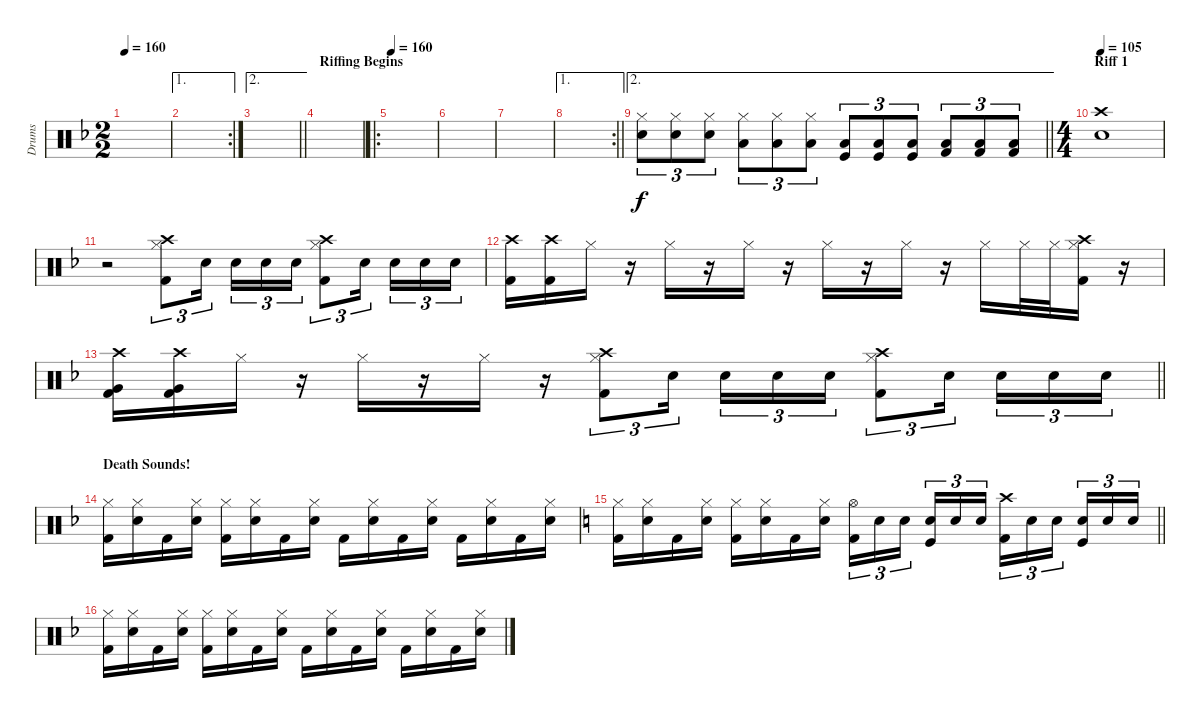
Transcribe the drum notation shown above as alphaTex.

\track ("Drums" "Drums") {instrument percussion}
\staff {score}
\articulation defaults
\ts (2 2)
\tempo 160
\clef neutral
\ks f
|
\ae 1
\rc 2
|
\ae 2
\barLineRight lightlight
|
\section ("" "Riffing Begins")
|
\ro
\tempo 160
|
|
|
\ae 1
\rc 2
\barLineRight lightlight
|
\ae 2
\barLineRight lightlight
("Snare (hit) 2" "Hi-Hat (closed)").8{tu (3 2)} ("Snare (hit) 2" "Hi-Hat (closed)").8{tu (3 2)} ("Snare (hit) 2" "Hi-Hat (closed)").8{tu (3 2)} ("Hi-Hat (closed)" "Low Floor Tom (hit)").8{tu (3 2)} ("Hi-Hat (closed)" "Low Floor Tom (hit)").8{tu (3 2)} ("Hi-Hat (closed)" "Low Floor Tom (hit)").8{tu (3 2)} ("Kick (hit)" "Low Floor Tom (hit)").8{tu (3 2)} ("Kick (hit)" "Low Floor Tom (hit)").8{tu (3 2)} ("Kick (hit)" "Low Floor Tom (hit)").8{tu (3 2)} ("Kick (hit) 2" "Low Floor Tom (hit)").8{tu (3 2)} ("Kick (hit) 2" "Low Floor Tom (hit)").8{tu (3 2)} ("Kick (hit) 2" "Low Floor Tom (hit)").8{tu (3 2)} |
\ts (4 4)
\section ("" "Riff 1")
\tempo 105
("Snare (hit) 2" "Crash high (hit)").1 |
r.2 ("Crash high (hit)" "Hi-Hat (closed)" "Kick (hit) 2").8{tu (3 2)} "Snare (hit) 2".16{tu (3 2) beam splitsecondary} "Snare (hit) 2".16{tu (3 2)} "Snare (hit) 2".16{tu (3 2)} "Snare (hit) 2".16{tu (3 2)} ("Crash high (hit)" "Hi-Hat (closed)" "Kick (hit) 2").8{tu (3 2)} "Snare (hit) 2".16{tu (3 2) beam splitsecondary} "Snare (hit) 2".16{tu (3 2)} "Snare (hit) 2".16{tu (3 2)} "Snare (hit) 2".16{tu (3 2)} |
("Crash high (hit)" "Kick (hit) 2").16 ("Crash high (hit)" "Kick (hit) 2").16 "Hi-Hat (closed)".16 r.16 "Hi-Hat (closed)".16 r.16 "Hi-Hat (closed)".16 r.16 "Hi-Hat (closed)".16 r.16 "Hi-Hat (closed)".16 r.16 "Hi-Hat (closed)".16 "Hi-Hat (closed)".32 "Hi-Hat (closed)".32 ("Crash high (hit)" "Hi-Hat (closed)" "Kick (hit) 2").16 r.16 |
\barLineRight lightlight
("Crash high (hit)" "Very Low Tom (hit)" "Kick (hit) 2").16 ("Crash high (hit)" "Very Low Tom (hit)" "Kick (hit) 2").16 "Hi-Hat (closed)".16 r.16 "Hi-Hat (closed)".16 r.16 "Hi-Hat (closed)".16 r.16 ("Crash high (hit)" "Hi-Hat (closed)" "Kick (hit) 2").8{tu (3 2)} "Snare (hit) 2".16{tu (3 2) beam splitsecondary} "Snare (hit) 2".16{tu (3 2)} "Snare (hit) 2".16{tu (3 2)} "Snare (hit) 2".16{tu (3 2)} ("Crash high (hit)" "Hi-Hat (closed)" "Kick (hit) 2").8{tu (3 2)} "Snare (hit) 2".16{tu (3 2) beam splitsecondary} "Snare (hit) 2".16{tu (3 2)} "Snare (hit) 2".16{tu (3 2)} "Snare (hit) 2".16{tu (3 2)} |
\section ("" "Death Sounds!")
("Hi-Hat (closed)" "Kick (hit) 2").16 ("Hi-Hat (closed)" "Snare (hit) 2").16 "Kick (hit) 2".16 ("Hi-Hat (closed)" "Snare (hit) 2").16 ("Hi-Hat (closed)" "Kick (hit) 2").16 ("Hi-Hat (closed)" "Snare (hit) 2").16 "Kick (hit) 2".16 ("Hi-Hat (closed)" "Snare (hit) 2").16 "Kick (hit) 2".16 ("Hi-Hat (closed)" "Snare (hit) 2").16 "Kick (hit) 2".16 ("Hi-Hat (closed)" "Snare (hit) 2").16 "Kick (hit) 2".16 ("Hi-Hat (closed)" "Snare (hit) 2").16 "Kick (hit) 2".16 ("Hi-Hat (closed)" "Snare (hit) 2").16 |
\barLineRight lightlight
\ks c
("Hi-Hat (closed)" "Kick (hit) 2").16 ("Hi-Hat (closed)" "Snare (hit) 2").16 "Kick (hit) 2".16 ("Hi-Hat (closed)" "Snare (hit) 2").16 ("Hi-Hat (closed)" "Kick (hit) 2").16 ("Hi-Hat (closed)" "Snare (hit) 2").16 "Kick (hit) 2".16 ("Hi-Hat (closed)" "Snare (hit) 2").16 ("Hi-Hat (open)" "Kick (hit) 2").16{tu (3 2)} "Snare (hit) 2".16{tu (3 2)} "Snare (hit) 2".16{tu (3 2) beam splitsecondary} ("Kick (hit)" "Snare (hit) 2").16{tu (3 2)} "Snare (hit) 2".16{tu (3 2)} "Snare (hit) 2".16{tu (3 2)} ("Crash high (hit)" "Kick (hit) 2").16{tu (3 2)} "Snare (hit) 2".16{tu (3 2)} "Snare (hit) 2".16{tu (3 2) beam splitsecondary} ("Kick (hit)" "Snare (hit) 2").16{tu (3 2)} "Snare (hit) 2".16{tu (3 2)} "Snare (hit) 2".16{tu (3 2)} |
\ks f
("Hi-Hat (closed)" "Kick (hit) 2").16 ("Hi-Hat (closed)" "Snare (hit) 2").16 "Kick (hit) 2".16 ("Hi-Hat (closed)" "Snare (hit) 2").16 ("Hi-Hat (closed)" "Kick (hit) 2").16 ("Hi-Hat (closed)" "Snare (hit) 2").16 "Kick (hit) 2".16 ("Hi-Hat (closed)" "Snare (hit) 2").16 "Kick (hit) 2".16 ("Hi-Hat (closed)" "Snare (hit) 2").16 "Kick (hit) 2".16 ("Hi-Hat (closed)" "Snare (hit) 2").16 "Kick (hit) 2".16 ("Hi-Hat (closed)" "Snare (hit) 2").16 "Kick (hit) 2".16 ("Hi-Hat (closed)" "Snare (hit) 2").16
